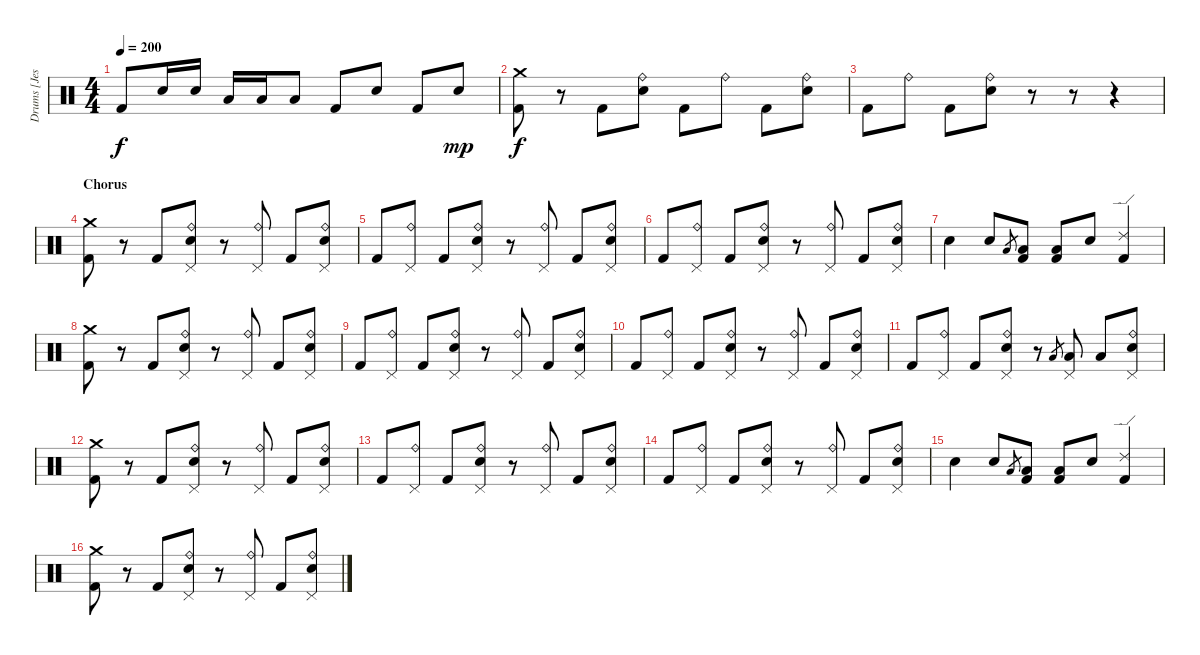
\track ("Drums [Jesse Ingelevics]" "Drums [Jes") {instrument percussion}
\staff {score}
\articulation defaults
\ts (4 4)
\tempo 200
\clef neutral
\ks c "Kick (hit) 2".8{dy f} "Electric Snare (hit)".16 "Electric Snare (hit)".16 "Low Tom (hit)".16 "Low Tom (hit)".16 "Low Tom (hit)".8 "Kick (hit) 2".8 "Electric Snare (hit)".8 "Kick (hit) 2".8 "Electric Snare (hit)".8{dy mp}
|
("Crash medium (hit)" "Kick (hit) 2").8{dy f} r.8 "Kick (hit) 2".8 ("Ride (bell)" "Electric Snare (hit)").8 "Kick (hit) 2".8 "Ride (bell)".8 "Kick (hit) 2".8 ("Ride (bell)" "Electric Snare (hit)").8 |
"Kick (hit) 2".8 "Ride (bell)".8 "Kick (hit) 2".8 ("Ride (bell)" "Electric Snare (hit)").8 r.8 r.8 r.4 |
\section ("" "Chorus")
("Crash medium (hit)" "Kick (hit) 2").8 r.8 "Kick (hit) 2".8 ("Ride (bell)" "Pedal Hi-Hat (hit)" "Electric Snare (hit)").8 r.8 ("Ride (bell)" "Pedal Hi-Hat (hit)").8 "Kick (hit) 2".8 ("Ride (bell)" "Pedal Hi-Hat (hit)" "Electric Snare (hit)").8 |
"Kick (hit) 2".8 ("Ride (bell)" "Pedal Hi-Hat (hit)").8 "Kick (hit) 2".8 ("Ride (bell)" "Pedal Hi-Hat (hit)" "Electric Snare (hit)").8 r.8 ("Ride (bell)" "Pedal Hi-Hat (hit)").8 "Kick (hit) 2".8 ("Ride (bell)" "Pedal Hi-Hat (hit)" "Electric Snare (hit)").8 |
"Kick (hit) 2".8 ("Ride (bell)" "Pedal Hi-Hat (hit)").8 "Kick (hit) 2".8 ("Ride (bell)" "Pedal Hi-Hat (hit)" "Electric Snare (hit)").8 r.8 ("Ride (bell)" "Pedal Hi-Hat (hit)").8 "Kick (hit) 2".8 ("Ride (bell)" "Pedal Hi-Hat (hit)" "Electric Snare (hit)").8 |
"Electric Snare (hit)".4 "Electric Snare (hit)".8 "Low Tom (hit)".8{gr} ("Low Tom (hit)" "Kick (hit) 2").8 ("Low Tom (hit)" "Kick (hit) 2").8 "Electric Snare (hit)".8 ("Ride (edge) 2" "Kick (hit) 2").4 |
("Crash medium (hit)" "Kick (hit) 2").8 r.8 "Kick (hit) 2".8 ("Ride (bell)" "Pedal Hi-Hat (hit)" "Electric Snare (hit)").8 r.8 ("Ride (bell)" "Pedal Hi-Hat (hit)").8 "Kick (hit) 2".8 ("Ride (bell)" "Pedal Hi-Hat (hit)" "Electric Snare (hit)").8 |
"Kick (hit) 2".8 ("Ride (bell)" "Pedal Hi-Hat (hit)").8 "Kick (hit) 2".8 ("Ride (bell)" "Pedal Hi-Hat (hit)" "Electric Snare (hit)").8 r.8 ("Ride (bell)" "Pedal Hi-Hat (hit)").8 "Kick (hit) 2".8 ("Ride (bell)" "Pedal Hi-Hat (hit)" "Electric Snare (hit)").8 |
"Kick (hit) 2".8 ("Ride (bell)" "Pedal Hi-Hat (hit)").8 "Kick (hit) 2".8 ("Ride (bell)" "Pedal Hi-Hat (hit)" "Electric Snare (hit)").8 r.8 ("Ride (bell)" "Pedal Hi-Hat (hit)").8 "Kick (hit) 2".8 ("Ride (bell)" "Pedal Hi-Hat (hit)" "Electric Snare (hit)").8 |
"Kick (hit) 2".8 ("Ride (bell)" "Pedal Hi-Hat (hit)").8 "Kick (hit) 2".8 ("Ride (bell)" "Pedal Hi-Hat (hit)" "Electric Snare (hit)").8 r.8 "Low Tom (hit)".8{gr} ("Pedal Hi-Hat (hit)" "Low Tom (hit)").8 "Low Tom (hit)".8 ("Ride (bell)" "Pedal Hi-Hat (hit)" "Electric Snare (hit)").8 |
("Crash medium (hit)" "Kick (hit) 2").8 r.8 "Kick (hit) 2".8 ("Ride (bell)" "Pedal Hi-Hat (hit)" "Electric Snare (hit)").8 r.8 ("Ride (bell)" "Pedal Hi-Hat (hit)").8 "Kick (hit) 2".8 ("Ride (bell)" "Pedal Hi-Hat (hit)" "Electric Snare (hit)").8 |
"Kick (hit) 2".8 ("Ride (bell)" "Pedal Hi-Hat (hit)").8 "Kick (hit) 2".8 ("Ride (bell)" "Pedal Hi-Hat (hit)" "Electric Snare (hit)").8 r.8 ("Ride (bell)" "Pedal Hi-Hat (hit)").8 "Kick (hit) 2".8 ("Ride (bell)" "Pedal Hi-Hat (hit)" "Electric Snare (hit)").8 |
"Kick (hit) 2".8 ("Ride (bell)" "Pedal Hi-Hat (hit)").8 "Kick (hit) 2".8 ("Ride (bell)" "Pedal Hi-Hat (hit)" "Electric Snare (hit)").8 r.8 ("Ride (bell)" "Pedal Hi-Hat (hit)").8 "Kick (hit) 2".8 ("Ride (bell)" "Pedal Hi-Hat (hit)" "Electric Snare (hit)").8 |
"Electric Snare (hit)".4 "Electric Snare (hit)".8 "Low Tom (hit)".8{gr} ("Low Tom (hit)" "Kick (hit) 2").8 ("Low Tom (hit)" "Kick (hit) 2").8 "Electric Snare (hit)".8 ("Ride (edge) 2" "Kick (hit) 2").4 |
("Crash medium (hit)" "Kick (hit) 2").8 r.8 "Kick (hit) 2".8 ("Ride (bell)" "Pedal Hi-Hat (hit)" "Electric Snare (hit)").8 r.8 ("Ride (bell)" "Pedal Hi-Hat (hit)").8 "Kick (hit) 2".8 ("Ride (bell)" "Pedal Hi-Hat (hit)" "Electric Snare (hit)").8
